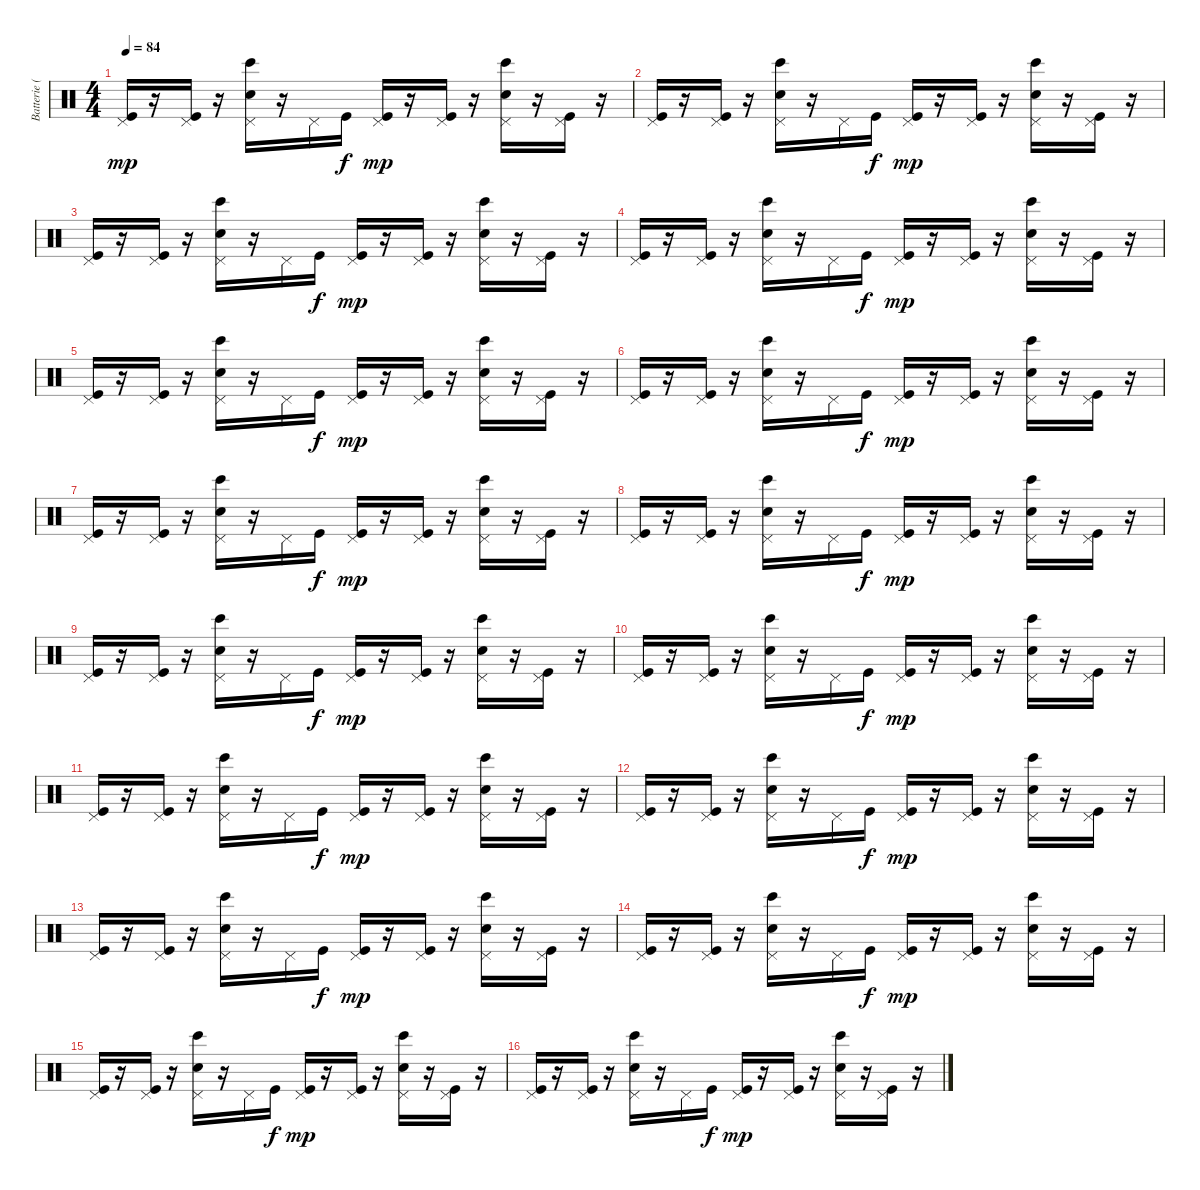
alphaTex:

\track ("Batterie (+hand claps)" "Batterie (") {instrument percussion}
\staff {score}
\articulation defaults
\ts (4 4)
\tempo 84
\clef neutral
\ks c
("Pedal Hi-Hat (hit)" "Kick (hit)").16{dy mp} r.16 ("Pedal Hi-Hat (hit)" "Kick (hit)").16 r.16 ("Pedal Hi-Hat (hit)" "Hand Clap (hit)" "Bongo High (hit)").16 r.16 "Pedal Hi-Hat (hit)".16 "Kick (hit)".16{dy f} ("Pedal Hi-Hat (hit)" "Kick (hit)").16{dy mp} r.16 ("Pedal Hi-Hat (hit)" "Kick (hit)").16 r.16 ("Pedal Hi-Hat (hit)" "Hand Clap (hit)" "Bongo High (hit)").16 r.16 ("Pedal Hi-Hat (hit)" "Kick (hit)").16 r.16 |
("Pedal Hi-Hat (hit)" "Kick (hit)").16 r.16 ("Pedal Hi-Hat (hit)" "Kick (hit)").16 r.16 ("Pedal Hi-Hat (hit)" "Hand Clap (hit)" "Bongo High (hit)").16 r.16 "Pedal Hi-Hat (hit)".16 "Kick (hit)".16{dy f} ("Pedal Hi-Hat (hit)" "Kick (hit)").16{dy mp} r.16 ("Pedal Hi-Hat (hit)" "Kick (hit)").16 r.16 ("Pedal Hi-Hat (hit)" "Hand Clap (hit)" "Bongo High (hit)").16 r.16 ("Pedal Hi-Hat (hit)" "Kick (hit)").16 r.16 |
("Pedal Hi-Hat (hit)" "Kick (hit)").16 r.16 ("Pedal Hi-Hat (hit)" "Kick (hit)").16 r.16 ("Pedal Hi-Hat (hit)" "Hand Clap (hit)" "Bongo High (hit)").16 r.16 "Pedal Hi-Hat (hit)".16 "Kick (hit)".16{dy f} ("Pedal Hi-Hat (hit)" "Kick (hit)").16{dy mp} r.16 ("Pedal Hi-Hat (hit)" "Kick (hit)").16 r.16 ("Pedal Hi-Hat (hit)" "Hand Clap (hit)" "Bongo High (hit)").16 r.16 ("Pedal Hi-Hat (hit)" "Kick (hit)").16 r.16 |
("Pedal Hi-Hat (hit)" "Kick (hit)").16 r.16 ("Pedal Hi-Hat (hit)" "Kick (hit)").16 r.16 ("Pedal Hi-Hat (hit)" "Hand Clap (hit)" "Bongo High (hit)").16 r.16 "Pedal Hi-Hat (hit)".16 "Kick (hit)".16{dy f} ("Pedal Hi-Hat (hit)" "Kick (hit)").16{dy mp} r.16 ("Pedal Hi-Hat (hit)" "Kick (hit)").16 r.16 ("Pedal Hi-Hat (hit)" "Hand Clap (hit)" "Bongo High (hit)").16 r.16 ("Pedal Hi-Hat (hit)" "Kick (hit)").16 r.16 |
("Pedal Hi-Hat (hit)" "Kick (hit)").16 r.16 ("Pedal Hi-Hat (hit)" "Kick (hit)").16 r.16 ("Pedal Hi-Hat (hit)" "Hand Clap (hit)" "Bongo High (hit)").16 r.16 "Pedal Hi-Hat (hit)".16 "Kick (hit)".16{dy f} ("Pedal Hi-Hat (hit)" "Kick (hit)").16{dy mp} r.16 ("Pedal Hi-Hat (hit)" "Kick (hit)").16 r.16 ("Pedal Hi-Hat (hit)" "Hand Clap (hit)" "Bongo High (hit)").16 r.16 ("Pedal Hi-Hat (hit)" "Kick (hit)").16 r.16 |
("Pedal Hi-Hat (hit)" "Kick (hit)").16 r.16 ("Pedal Hi-Hat (hit)" "Kick (hit)").16 r.16 ("Pedal Hi-Hat (hit)" "Hand Clap (hit)" "Bongo High (hit)").16 r.16 "Pedal Hi-Hat (hit)".16 "Kick (hit)".16{dy f} ("Pedal Hi-Hat (hit)" "Kick (hit)").16{dy mp} r.16 ("Pedal Hi-Hat (hit)" "Kick (hit)").16 r.16 ("Pedal Hi-Hat (hit)" "Hand Clap (hit)" "Bongo High (hit)").16 r.16 ("Pedal Hi-Hat (hit)" "Kick (hit)").16 r.16 |
("Pedal Hi-Hat (hit)" "Kick (hit)").16 r.16 ("Pedal Hi-Hat (hit)" "Kick (hit)").16 r.16 ("Pedal Hi-Hat (hit)" "Hand Clap (hit)" "Bongo High (hit)").16 r.16 "Pedal Hi-Hat (hit)".16 "Kick (hit)".16{dy f} ("Pedal Hi-Hat (hit)" "Kick (hit)").16{dy mp} r.16 ("Pedal Hi-Hat (hit)" "Kick (hit)").16 r.16 ("Pedal Hi-Hat (hit)" "Hand Clap (hit)" "Bongo High (hit)").16 r.16 ("Pedal Hi-Hat (hit)" "Kick (hit)").16 r.16 |
("Pedal Hi-Hat (hit)" "Kick (hit)").16 r.16 ("Pedal Hi-Hat (hit)" "Kick (hit)").16 r.16 ("Pedal Hi-Hat (hit)" "Hand Clap (hit)" "Bongo High (hit)").16 r.16 "Pedal Hi-Hat (hit)".16 "Kick (hit)".16{dy f} ("Pedal Hi-Hat (hit)" "Kick (hit)").16{dy mp} r.16 ("Pedal Hi-Hat (hit)" "Kick (hit)").16 r.16 ("Pedal Hi-Hat (hit)" "Hand Clap (hit)" "Bongo High (hit)").16 r.16 ("Pedal Hi-Hat (hit)" "Kick (hit)").16 r.16 |
("Pedal Hi-Hat (hit)" "Kick (hit)").16 r.16 ("Pedal Hi-Hat (hit)" "Kick (hit)").16 r.16 ("Pedal Hi-Hat (hit)" "Hand Clap (hit)" "Bongo High (hit)").16 r.16 "Pedal Hi-Hat (hit)".16 "Kick (hit)".16{dy f} ("Pedal Hi-Hat (hit)" "Kick (hit)").16{dy mp} r.16 ("Pedal Hi-Hat (hit)" "Kick (hit)").16 r.16 ("Pedal Hi-Hat (hit)" "Hand Clap (hit)" "Bongo High (hit)").16 r.16 ("Pedal Hi-Hat (hit)" "Kick (hit)").16 r.16 |
("Pedal Hi-Hat (hit)" "Kick (hit)").16 r.16 ("Pedal Hi-Hat (hit)" "Kick (hit)").16 r.16 ("Pedal Hi-Hat (hit)" "Hand Clap (hit)" "Bongo High (hit)").16 r.16 "Pedal Hi-Hat (hit)".16 "Kick (hit)".16{dy f} ("Pedal Hi-Hat (hit)" "Kick (hit)").16{dy mp} r.16 ("Pedal Hi-Hat (hit)" "Kick (hit)").16 r.16 ("Pedal Hi-Hat (hit)" "Hand Clap (hit)" "Bongo High (hit)").16 r.16 ("Pedal Hi-Hat (hit)" "Kick (hit)").16 r.16 |
("Pedal Hi-Hat (hit)" "Kick (hit)").16 r.16 ("Pedal Hi-Hat (hit)" "Kick (hit)").16 r.16 ("Pedal Hi-Hat (hit)" "Hand Clap (hit)" "Bongo High (hit)").16 r.16 "Pedal Hi-Hat (hit)".16 "Kick (hit)".16{dy f} ("Pedal Hi-Hat (hit)" "Kick (hit)").16{dy mp} r.16 ("Pedal Hi-Hat (hit)" "Kick (hit)").16 r.16 ("Pedal Hi-Hat (hit)" "Hand Clap (hit)" "Bongo High (hit)").16 r.16 ("Pedal Hi-Hat (hit)" "Kick (hit)").16 r.16 |
("Pedal Hi-Hat (hit)" "Kick (hit)").16 r.16 ("Pedal Hi-Hat (hit)" "Kick (hit)").16 r.16 ("Pedal Hi-Hat (hit)" "Hand Clap (hit)" "Bongo High (hit)").16 r.16 "Pedal Hi-Hat (hit)".16 "Kick (hit)".16{dy f} ("Pedal Hi-Hat (hit)" "Kick (hit)").16{dy mp} r.16 ("Pedal Hi-Hat (hit)" "Kick (hit)").16 r.16 ("Pedal Hi-Hat (hit)" "Hand Clap (hit)" "Bongo High (hit)").16 r.16 ("Pedal Hi-Hat (hit)" "Kick (hit)").16 r.16 |
("Pedal Hi-Hat (hit)" "Kick (hit)").16 r.16 ("Pedal Hi-Hat (hit)" "Kick (hit)").16 r.16 ("Pedal Hi-Hat (hit)" "Hand Clap (hit)" "Bongo High (hit)").16 r.16 "Pedal Hi-Hat (hit)".16 "Kick (hit)".16{dy f} ("Pedal Hi-Hat (hit)" "Kick (hit)").16{dy mp} r.16 ("Pedal Hi-Hat (hit)" "Kick (hit)").16 r.16 ("Pedal Hi-Hat (hit)" "Hand Clap (hit)" "Bongo High (hit)").16 r.16 ("Pedal Hi-Hat (hit)" "Kick (hit)").16 r.16 |
("Pedal Hi-Hat (hit)" "Kick (hit)").16 r.16 ("Pedal Hi-Hat (hit)" "Kick (hit)").16 r.16 ("Pedal Hi-Hat (hit)" "Hand Clap (hit)" "Bongo High (hit)").16 r.16 "Pedal Hi-Hat (hit)".16 "Kick (hit)".16{dy f} ("Pedal Hi-Hat (hit)" "Kick (hit)").16{dy mp} r.16 ("Pedal Hi-Hat (hit)" "Kick (hit)").16 r.16 ("Pedal Hi-Hat (hit)" "Hand Clap (hit)" "Bongo High (hit)").16 r.16 ("Pedal Hi-Hat (hit)" "Kick (hit)").16 r.16 |
("Pedal Hi-Hat (hit)" "Kick (hit)").16 r.16 ("Pedal Hi-Hat (hit)" "Kick (hit)").16 r.16 ("Pedal Hi-Hat (hit)" "Hand Clap (hit)" "Bongo High (hit)").16 r.16 "Pedal Hi-Hat (hit)".16 "Kick (hit)".16{dy f} ("Pedal Hi-Hat (hit)" "Kick (hit)").16{dy mp} r.16 ("Pedal Hi-Hat (hit)" "Kick (hit)").16 r.16 ("Pedal Hi-Hat (hit)" "Hand Clap (hit)" "Bongo High (hit)").16 r.16 ("Pedal Hi-Hat (hit)" "Kick (hit)").16 r.16 |
("Pedal Hi-Hat (hit)" "Kick (hit)").16 r.16 ("Pedal Hi-Hat (hit)" "Kick (hit)").16 r.16 ("Pedal Hi-Hat (hit)" "Hand Clap (hit)" "Bongo High (hit)").16 r.16 "Pedal Hi-Hat (hit)".16 "Kick (hit)".16{dy f} ("Pedal Hi-Hat (hit)" "Kick (hit)").16{dy mp} r.16 ("Pedal Hi-Hat (hit)" "Kick (hit)").16 r.16 ("Pedal Hi-Hat (hit)" "Hand Clap (hit)" "Bongo High (hit)").16 r.16 ("Pedal Hi-Hat (hit)" "Kick (hit)").16 r.16
